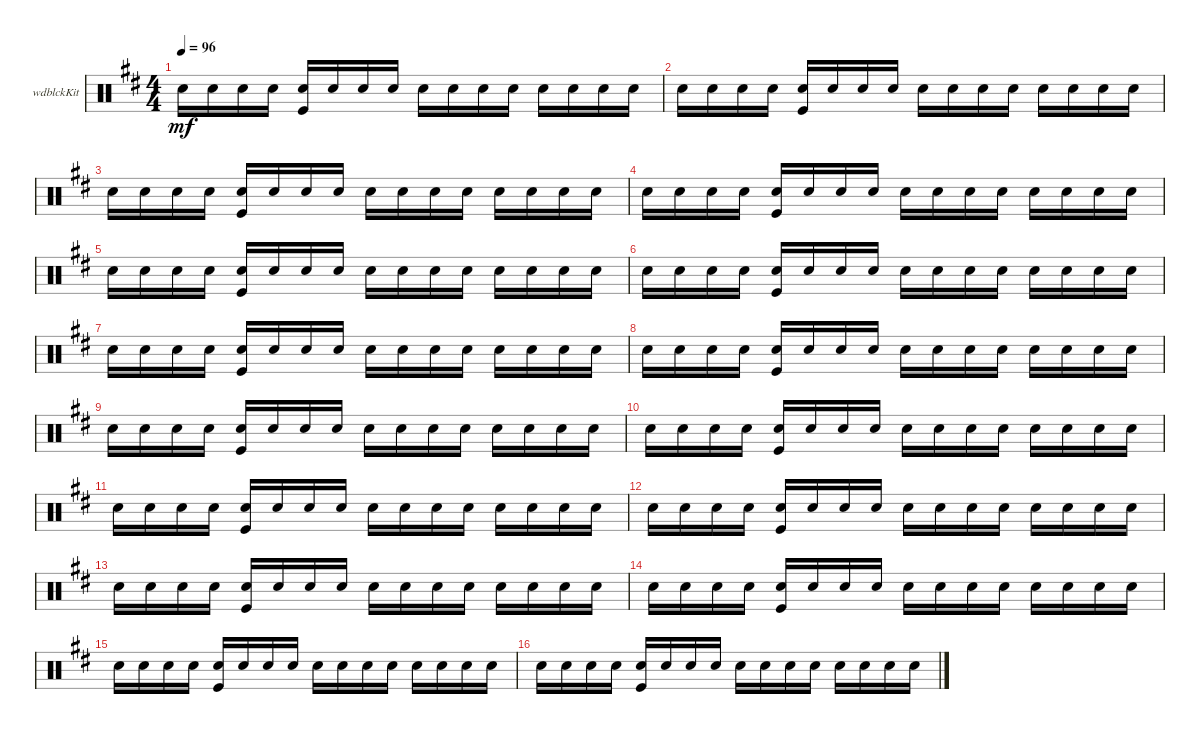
\defaultSystemsLayout 4
\bracketExtendMode groupsimilarinstruments
\firstSystemTrackNameOrientation horizontal
\otherSystemsTrackNameOrientation horizontal
\track ("Woodblock" "wdblckKit") {instrument percussion}
\staff {score}
\articulation defaults
\ts (4 4)
\tempo 96
\clef neutral
\ks d "Snare (hit) 2".16{dy mf} "Snare (hit) 2".16 "Snare (hit) 2".16 "Snare (hit) 2".16
("Snare (hit) 2" "Kick (hit)").16 "Snare (hit) 2".16 "Snare (hit) 2".16 "Snare (hit) 2".16 "Snare (hit) 2".16 "Snare (hit) 2".16 "Snare (hit) 2".16 "Snare (hit) 2".16 "Snare (hit) 2".16 "Snare (hit) 2".16 "Snare (hit) 2".16 "Snare (hit) 2".16 |
"Snare (hit) 2".16 "Snare (hit) 2".16 "Snare (hit) 2".16 "Snare (hit) 2".16 ("Snare (hit) 2" "Kick (hit)").16 "Snare (hit) 2".16 "Snare (hit) 2".16 "Snare (hit) 2".16 "Snare (hit) 2".16 "Snare (hit) 2".16 "Snare (hit) 2".16 "Snare (hit) 2".16 "Snare (hit) 2".16 "Snare (hit) 2".16 "Snare (hit) 2".16 "Snare (hit) 2".16 |
"Snare (hit) 2".16 "Snare (hit) 2".16 "Snare (hit) 2".16 "Snare (hit) 2".16 ("Snare (hit) 2" "Kick (hit)").16 "Snare (hit) 2".16 "Snare (hit) 2".16 "Snare (hit) 2".16 "Snare (hit) 2".16 "Snare (hit) 2".16 "Snare (hit) 2".16 "Snare (hit) 2".16 "Snare (hit) 2".16 "Snare (hit) 2".16 "Snare (hit) 2".16 "Snare (hit) 2".16 |
"Snare (hit) 2".16 "Snare (hit) 2".16 "Snare (hit) 2".16 "Snare (hit) 2".16 ("Snare (hit) 2" "Kick (hit)").16 "Snare (hit) 2".16 "Snare (hit) 2".16 "Snare (hit) 2".16 "Snare (hit) 2".16 "Snare (hit) 2".16 "Snare (hit) 2".16 "Snare (hit) 2".16 "Snare (hit) 2".16 "Snare (hit) 2".16 "Snare (hit) 2".16 "Snare (hit) 2".16 |
"Snare (hit) 2".16 "Snare (hit) 2".16 "Snare (hit) 2".16 "Snare (hit) 2".16 ("Snare (hit) 2" "Kick (hit)").16 "Snare (hit) 2".16 "Snare (hit) 2".16 "Snare (hit) 2".16 "Snare (hit) 2".16 "Snare (hit) 2".16 "Snare (hit) 2".16 "Snare (hit) 2".16 "Snare (hit) 2".16 "Snare (hit) 2".16 "Snare (hit) 2".16 "Snare (hit) 2".16 |
"Snare (hit) 2".16 "Snare (hit) 2".16 "Snare (hit) 2".16 "Snare (hit) 2".16 ("Snare (hit) 2" "Kick (hit)").16 "Snare (hit) 2".16 "Snare (hit) 2".16 "Snare (hit) 2".16 "Snare (hit) 2".16 "Snare (hit) 2".16 "Snare (hit) 2".16 "Snare (hit) 2".16 "Snare (hit) 2".16 "Snare (hit) 2".16 "Snare (hit) 2".16 "Snare (hit) 2".16 |
"Snare (hit) 2".16 "Snare (hit) 2".16 "Snare (hit) 2".16 "Snare (hit) 2".16 ("Snare (hit) 2" "Kick (hit)").16 "Snare (hit) 2".16 "Snare (hit) 2".16 "Snare (hit) 2".16 "Snare (hit) 2".16 "Snare (hit) 2".16 "Snare (hit) 2".16 "Snare (hit) 2".16 "Snare (hit) 2".16 "Snare (hit) 2".16 "Snare (hit) 2".16 "Snare (hit) 2".16 |
"Snare (hit) 2".16 "Snare (hit) 2".16 "Snare (hit) 2".16 "Snare (hit) 2".16 ("Snare (hit) 2" "Kick (hit)").16 "Snare (hit) 2".16 "Snare (hit) 2".16 "Snare (hit) 2".16 "Snare (hit) 2".16 "Snare (hit) 2".16 "Snare (hit) 2".16 "Snare (hit) 2".16 "Snare (hit) 2".16 "Snare (hit) 2".16 "Snare (hit) 2".16 "Snare (hit) 2".16 |
"Snare (hit) 2".16 "Snare (hit) 2".16 "Snare (hit) 2".16 "Snare (hit) 2".16 ("Snare (hit) 2" "Kick (hit)").16 "Snare (hit) 2".16 "Snare (hit) 2".16 "Snare (hit) 2".16 "Snare (hit) 2".16 "Snare (hit) 2".16 "Snare (hit) 2".16 "Snare (hit) 2".16 "Snare (hit) 2".16 "Snare (hit) 2".16 "Snare (hit) 2".16 "Snare (hit) 2".16 |
"Snare (hit) 2".16 "Snare (hit) 2".16 "Snare (hit) 2".16 "Snare (hit) 2".16 ("Snare (hit) 2" "Kick (hit)").16 "Snare (hit) 2".16 "Snare (hit) 2".16 "Snare (hit) 2".16 "Snare (hit) 2".16 "Snare (hit) 2".16 "Snare (hit) 2".16 "Snare (hit) 2".16 "Snare (hit) 2".16 "Snare (hit) 2".16 "Snare (hit) 2".16 "Snare (hit) 2".16 |
"Snare (hit) 2".16 "Snare (hit) 2".16 "Snare (hit) 2".16 "Snare (hit) 2".16 ("Snare (hit) 2" "Kick (hit)").16 "Snare (hit) 2".16 "Snare (hit) 2".16 "Snare (hit) 2".16 "Snare (hit) 2".16 "Snare (hit) 2".16 "Snare (hit) 2".16 "Snare (hit) 2".16 "Snare (hit) 2".16 "Snare (hit) 2".16 "Snare (hit) 2".16 "Snare (hit) 2".16 |
"Snare (hit) 2".16 "Snare (hit) 2".16 "Snare (hit) 2".16 "Snare (hit) 2".16 ("Snare (hit) 2" "Kick (hit)").16 "Snare (hit) 2".16 "Snare (hit) 2".16 "Snare (hit) 2".16 "Snare (hit) 2".16 "Snare (hit) 2".16 "Snare (hit) 2".16 "Snare (hit) 2".16 "Snare (hit) 2".16 "Snare (hit) 2".16 "Snare (hit) 2".16 "Snare (hit) 2".16 |
"Snare (hit) 2".16 "Snare (hit) 2".16 "Snare (hit) 2".16 "Snare (hit) 2".16 ("Snare (hit) 2" "Kick (hit)").16 "Snare (hit) 2".16 "Snare (hit) 2".16 "Snare (hit) 2".16 "Snare (hit) 2".16 "Snare (hit) 2".16 "Snare (hit) 2".16 "Snare (hit) 2".16 "Snare (hit) 2".16 "Snare (hit) 2".16 "Snare (hit) 2".16 "Snare (hit) 2".16 |
"Snare (hit) 2".16 "Snare (hit) 2".16 "Snare (hit) 2".16 "Snare (hit) 2".16 ("Snare (hit) 2" "Kick (hit)").16 "Snare (hit) 2".16 "Snare (hit) 2".16 "Snare (hit) 2".16 "Snare (hit) 2".16 "Snare (hit) 2".16 "Snare (hit) 2".16 "Snare (hit) 2".16 "Snare (hit) 2".16 "Snare (hit) 2".16 "Snare (hit) 2".16 "Snare (hit) 2".16 |
"Snare (hit) 2".16 "Snare (hit) 2".16 "Snare (hit) 2".16 "Snare (hit) 2".16 ("Snare (hit) 2" "Kick (hit)").16 "Snare (hit) 2".16 "Snare (hit) 2".16 "Snare (hit) 2".16 "Snare (hit) 2".16 "Snare (hit) 2".16 "Snare (hit) 2".16 "Snare (hit) 2".16 "Snare (hit) 2".16 "Snare (hit) 2".16 "Snare (hit) 2".16 "Snare (hit) 2".16 |
"Snare (hit) 2".16 "Snare (hit) 2".16 "Snare (hit) 2".16 "Snare (hit) 2".16 ("Snare (hit) 2" "Kick (hit)").16 "Snare (hit) 2".16 "Snare (hit) 2".16 "Snare (hit) 2".16 "Snare (hit) 2".16 "Snare (hit) 2".16 "Snare (hit) 2".16 "Snare (hit) 2".16 "Snare (hit) 2".16 "Snare (hit) 2".16 "Snare (hit) 2".16 "Snare (hit) 2".16
